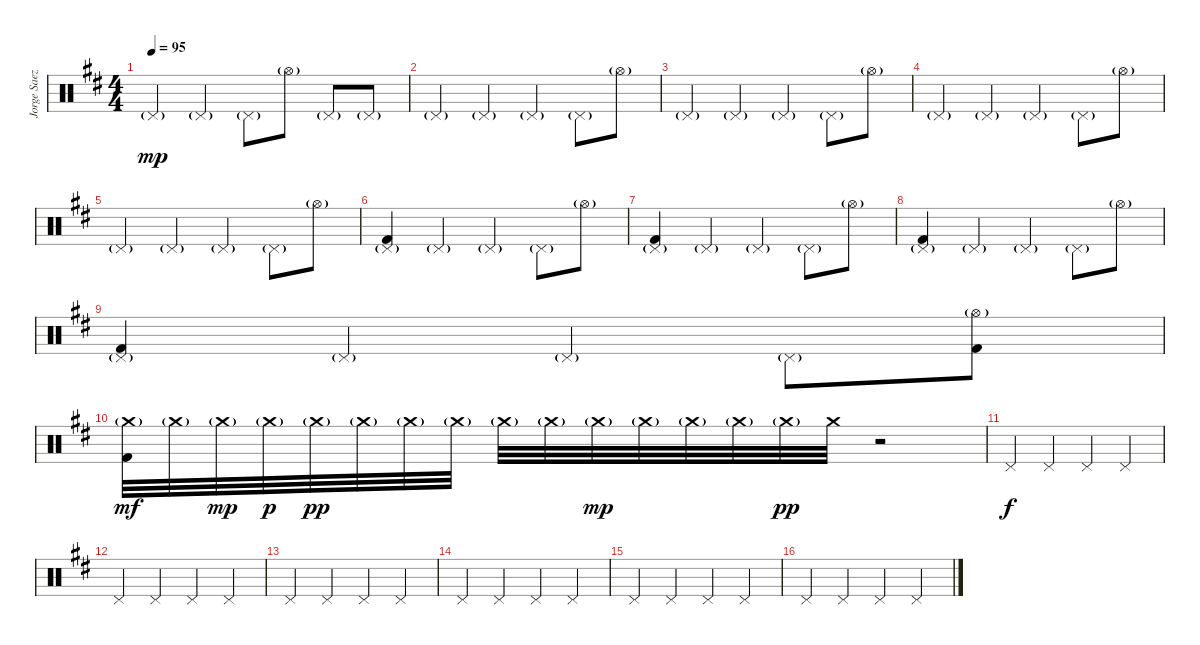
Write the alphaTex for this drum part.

\track ("Jorge Saez - Drums" "Jorge Saez") {instrument percussion}
\staff {score}
\articulation defaults
\ts (4 4)
\tempo 95
\clef neutral
\ks bminor "Pedal Hi-Hat (hit)"{g}.4{dy mp volume 0} "Pedal Hi-Hat (hit)"{g}.4 "Pedal Hi-Hat (hit)"{g}.8 "Hi-Hat (open)"{g}.8 "Pedal Hi-Hat (hit)"{g}.8 "Pedal Hi-Hat (hit)"{g}.8
|
"Pedal Hi-Hat (hit)"{g}.4 "Pedal Hi-Hat (hit)"{g}.4 "Pedal Hi-Hat (hit)"{g}.4 "Pedal Hi-Hat (hit)"{g}.8 "Hi-Hat (open)"{g}.8 |
"Pedal Hi-Hat (hit)"{g}.4 "Pedal Hi-Hat (hit)"{g}.4 "Pedal Hi-Hat (hit)"{g}.4 "Pedal Hi-Hat (hit)"{g}.8 "Hi-Hat (open)"{g}.8 |
"Pedal Hi-Hat (hit)"{g}.4 "Pedal Hi-Hat (hit)"{g}.4 "Pedal Hi-Hat (hit)"{g}.4 "Pedal Hi-Hat (hit)"{g}.8 "Hi-Hat (open)"{g}.8 |
"Pedal Hi-Hat (hit)"{g}.4 "Pedal Hi-Hat (hit)"{g}.4 "Pedal Hi-Hat (hit)"{g}.4 "Pedal Hi-Hat (hit)"{g}.8 "Hi-Hat (open)"{g}.8 |
("Pedal Hi-Hat (hit)"{g} "Kick (hit) 2").4 "Pedal Hi-Hat (hit)"{g}.4 "Pedal Hi-Hat (hit)"{g}.4 "Pedal Hi-Hat (hit)"{g}.8 "Hi-Hat (open)"{g}.8 |
("Pedal Hi-Hat (hit)"{g} "Kick (hit) 2").4 "Pedal Hi-Hat (hit)"{g}.4 "Pedal Hi-Hat (hit)"{g}.4 "Pedal Hi-Hat (hit)"{g}.8 "Hi-Hat (open)"{g}.8 |
("Pedal Hi-Hat (hit)"{g} "Kick (hit) 2").4 "Pedal Hi-Hat (hit)"{g}.4 "Pedal Hi-Hat (hit)"{g}.4 "Pedal Hi-Hat (hit)"{g}.8 "Hi-Hat (open)"{g}.8 |
("Pedal Hi-Hat (hit)"{g} "Kick (hit) 2").4 "Pedal Hi-Hat (hit)"{g}.4 "Pedal Hi-Hat (hit)"{g}.4 "Pedal Hi-Hat (hit)"{g}.8 ("Hi-Hat (open)"{g} "Kick (hit) 2").8 |
("Crash medium (hit)"{g} "Kick (hit) 2").32{dy mf} "Crash medium (hit)"{g}.32 "Crash medium (hit)"{g}.32{dy mp} "Crash medium (hit)"{g}.32{dy p} "Crash medium (hit)"{g}.32{dy pp} "Crash medium (hit)"{g}.32 "Crash medium (hit)"{g}.32 "Crash medium (hit)"{g}.32 "Crash medium (hit)"{g}.32 "Crash medium (hit)"{g}.32 "Crash medium (hit)"{g}.32{dy mp} "Crash medium (hit)"{g}.32 "Crash medium (hit)"{g}.32 "Crash medium (hit)"{g}.32 "Crash medium (hit)"{g}.32{dy pp} "Crash medium (hit)".32 r.2 |
"Pedal Hi-Hat (hit)".4{dy f} "Pedal Hi-Hat (hit)".4 "Pedal Hi-Hat (hit)".4 "Pedal Hi-Hat (hit)".4 |
"Pedal Hi-Hat (hit)".4 "Pedal Hi-Hat (hit)".4 "Pedal Hi-Hat (hit)".4 "Pedal Hi-Hat (hit)".4 |
"Pedal Hi-Hat (hit)".4 "Pedal Hi-Hat (hit)".4 "Pedal Hi-Hat (hit)".4 "Pedal Hi-Hat (hit)".4 |
"Pedal Hi-Hat (hit)".4 "Pedal Hi-Hat (hit)".4 "Pedal Hi-Hat (hit)".4 "Pedal Hi-Hat (hit)".4 |
"Pedal Hi-Hat (hit)".4 "Pedal Hi-Hat (hit)".4 "Pedal Hi-Hat (hit)".4 "Pedal Hi-Hat (hit)".4 |
"Pedal Hi-Hat (hit)".4 "Pedal Hi-Hat (hit)".4 "Pedal Hi-Hat (hit)".4 "Pedal Hi-Hat (hit)".4
